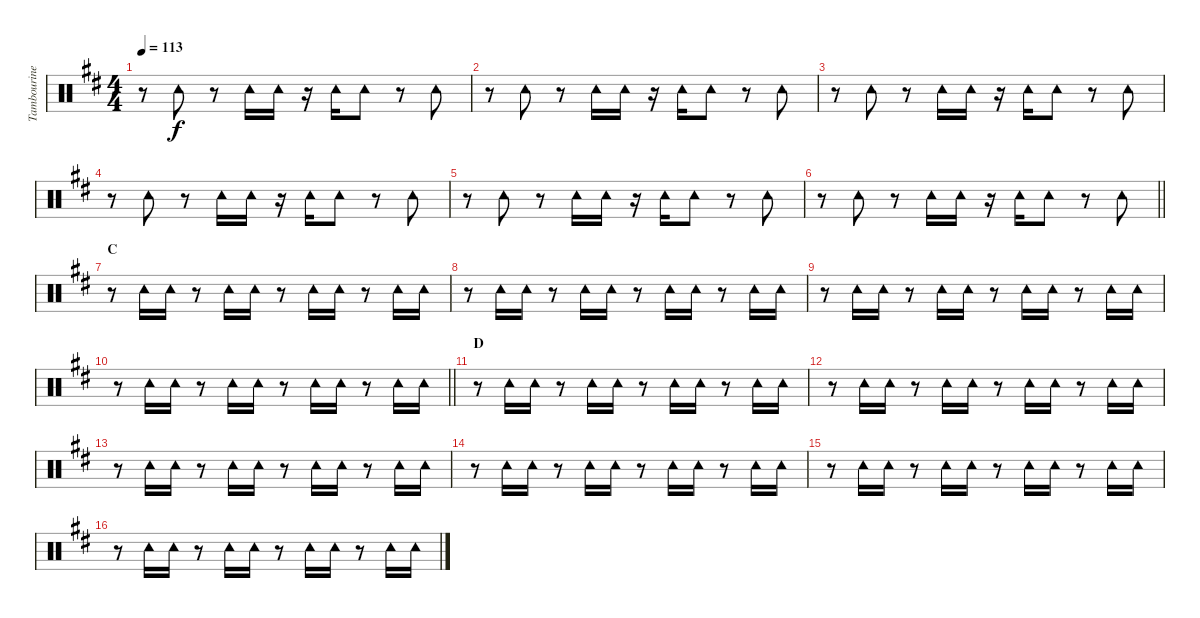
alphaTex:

\track ("Tambourine" "Tambourine") {instrument percussion}
\staff {score}
\articulation defaults
\ts (4 4)
\tempo 113
\clef neutral
\ks d
r.8{dy f} "Tambourine (hit)".8 r.8 "Tambourine (hit)".16 "Tambourine (hit)".16 r.16 "Tambourine (hit)".16 "Tambourine (hit)".8 r.8 "Tambourine (hit)".8 |
r.8 "Tambourine (hit)".8 r.8 "Tambourine (hit)".16 "Tambourine (hit)".16 r.16 "Tambourine (hit)".16 "Tambourine (hit)".8 r.8 "Tambourine (hit)".8 |
r.8 "Tambourine (hit)".8 r.8 "Tambourine (hit)".16 "Tambourine (hit)".16 r.16 "Tambourine (hit)".16 "Tambourine (hit)".8 r.8 "Tambourine (hit)".8 |
r.8 "Tambourine (hit)".8 r.8 "Tambourine (hit)".16 "Tambourine (hit)".16 r.16 "Tambourine (hit)".16 "Tambourine (hit)".8 r.8 "Tambourine (hit)".8 |
r.8 "Tambourine (hit)".8 r.8 "Tambourine (hit)".16 "Tambourine (hit)".16 r.16 "Tambourine (hit)".16 "Tambourine (hit)".8 r.8 "Tambourine (hit)".8 |
\barLineRight lightlight
r.8 "Tambourine (hit)".8 r.8 "Tambourine (hit)".16 "Tambourine (hit)".16 r.16 "Tambourine (hit)".16 "Tambourine (hit)".8 r.8 "Tambourine (hit)".8 |
\section ("" "C")
r.8 "Tambourine (hit)".16 "Tambourine (hit)".16 r.8 "Tambourine (hit)".16 "Tambourine (hit)".16 r.8 "Tambourine (hit)".16 "Tambourine (hit)".16 r.8 "Tambourine (hit)".16 "Tambourine (hit)".16 |
r.8 "Tambourine (hit)".16 "Tambourine (hit)".16 r.8 "Tambourine (hit)".16 "Tambourine (hit)".16 r.8 "Tambourine (hit)".16 "Tambourine (hit)".16 r.8 "Tambourine (hit)".16 "Tambourine (hit)".16 |
r.8 "Tambourine (hit)".16 "Tambourine (hit)".16 r.8 "Tambourine (hit)".16 "Tambourine (hit)".16 r.8 "Tambourine (hit)".16 "Tambourine (hit)".16 r.8 "Tambourine (hit)".16 "Tambourine (hit)".16 |
\barLineRight lightlight
r.8 "Tambourine (hit)".16 "Tambourine (hit)".16 r.8 "Tambourine (hit)".16 "Tambourine (hit)".16 r.8 "Tambourine (hit)".16 "Tambourine (hit)".16 r.8 "Tambourine (hit)".16 "Tambourine (hit)".16 |
\section ("" "D")
r.8 "Tambourine (hit)".16 "Tambourine (hit)".16 r.8 "Tambourine (hit)".16 "Tambourine (hit)".16 r.8 "Tambourine (hit)".16 "Tambourine (hit)".16 r.8 "Tambourine (hit)".16 "Tambourine (hit)".16 |
r.8 "Tambourine (hit)".16 "Tambourine (hit)".16 r.8 "Tambourine (hit)".16 "Tambourine (hit)".16 r.8 "Tambourine (hit)".16 "Tambourine (hit)".16 r.8 "Tambourine (hit)".16 "Tambourine (hit)".16 |
r.8 "Tambourine (hit)".16 "Tambourine (hit)".16 r.8 "Tambourine (hit)".16 "Tambourine (hit)".16 r.8 "Tambourine (hit)".16 "Tambourine (hit)".16 r.8 "Tambourine (hit)".16 "Tambourine (hit)".16 |
r.8 "Tambourine (hit)".16 "Tambourine (hit)".16 r.8 "Tambourine (hit)".16 "Tambourine (hit)".16 r.8 "Tambourine (hit)".16 "Tambourine (hit)".16 r.8 "Tambourine (hit)".16 "Tambourine (hit)".16 |
r.8 "Tambourine (hit)".16 "Tambourine (hit)".16 r.8 "Tambourine (hit)".16 "Tambourine (hit)".16 r.8 "Tambourine (hit)".16 "Tambourine (hit)".16 r.8 "Tambourine (hit)".16 "Tambourine (hit)".16 |
r.8 "Tambourine (hit)".16 "Tambourine (hit)".16 r.8 "Tambourine (hit)".16 "Tambourine (hit)".16 r.8 "Tambourine (hit)".16 "Tambourine (hit)".16 r.8 "Tambourine (hit)".16 "Tambourine (hit)".16
